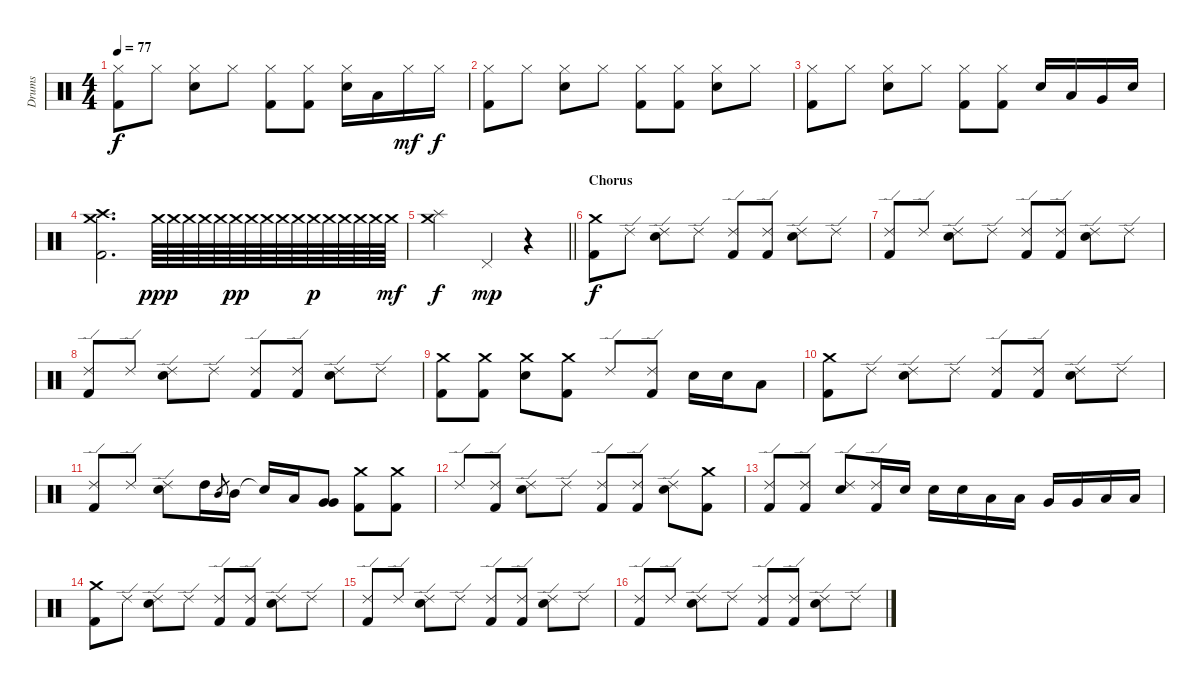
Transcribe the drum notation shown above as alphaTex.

\track ("Drums" "Drums") {instrument percussion}
\staff {score}
\articulation defaults
\ts (4 4)
\tempo 77
\clef neutral
\ks c
("Hi-Hat (closed)" "Kick (hit) 2").8{dy f} "Hi-Hat (closed)".8 ("Hi-Hat (closed)" "Electric Snare (hit)").8 "Hi-Hat (closed)".8 ("Hi-Hat (closed)" "Kick (hit) 2").8 ("Hi-Hat (closed)" "Kick (hit) 2").8 ("Hi-Hat (closed)" "Electric Snare (hit)").16 "Low Tom (hit)".16 "Hi-Hat (closed)".16{dy mf} "Hi-Hat (closed)".16{dy f} |
("Hi-Hat (closed)" "Kick (hit) 2").8 "Hi-Hat (closed)".8 ("Hi-Hat (closed)" "Electric Snare (hit)").8 "Hi-Hat (closed)".8 ("Hi-Hat (closed)" "Kick (hit) 2").8 ("Hi-Hat (closed)" "Kick (hit) 2").8 ("Hi-Hat (closed)" "Electric Snare (hit)").8 "Hi-Hat (closed)".8 |
("Hi-Hat (closed)" "Kick (hit) 2").8 "Hi-Hat (closed)".8 ("Hi-Hat (closed)" "Electric Snare (hit)").8 "Hi-Hat (closed)".8 ("Hi-Hat (closed)" "Kick (hit) 2").8 ("Hi-Hat (closed)" "Kick (hit) 2").8 "Electric Snare (hit)".16 "Low Tom (hit)".16 "Very Low Tom (hit)".16 "Electric Snare (hit)".16 |
("Crash medium (hit)" "Crash high (hit)" "Kick (hit) 2").2{d} "Crash medium (hit)".64{dy ppp} "Crash medium (hit)".64 "Crash medium (hit)".64 "Crash medium (hit)".64 "Crash medium (hit)".64 "Crash medium (hit)".64{dy pp} "Crash medium (hit)".64 "Crash medium (hit)".64 "Crash medium (hit)".64 "Crash medium (hit)".64 "Crash medium (hit)".64{dy p} "Crash medium (hit)".64 "Crash medium (hit)".64 "Crash medium (hit)".64 "Crash medium (hit)".64 "Crash medium (hit)".64{dy mf} |
\barLineRight lightlight
("Splash (hit)" "Crash medium (hit)").2{dy f} "Pedal Hi-Hat (hit)".4{dy mp} r.4 |
\section ("" "Chorus")
("Crash medium (hit)" "Kick (hit) 2").8{dy f} "Ride (edge) 2".8 ("Ride (edge) 2" "Electric Snare (hit)").8 "Ride (edge) 2".8 ("Ride (edge) 2" "Kick (hit) 2").8 ("Ride (edge) 2" "Kick (hit) 2").8 ("Ride (edge) 2" "Electric Snare (hit)").8 "Ride (edge) 2".8 |
("Ride (edge) 2" "Kick (hit) 2").8 "Ride (edge) 2".8 ("Ride (edge) 2" "Electric Snare (hit)").8 "Ride (edge) 2".8 ("Ride (edge) 2" "Kick (hit) 2").8 ("Ride (edge) 2" "Kick (hit) 2").8 ("Ride (edge) 2" "Electric Snare (hit)").8 "Ride (edge) 2".8 |
("Ride (edge) 2" "Kick (hit) 2").8 "Ride (edge) 2".8 ("Ride (edge) 2" "Electric Snare (hit)").8 "Ride (edge) 2".8 ("Ride (edge) 2" "Kick (hit) 2").8 ("Ride (edge) 2" "Kick (hit) 2").8 ("Ride (edge) 2" "Electric Snare (hit)").8 "Ride (edge) 2".8 |
("Crash medium (hit)" "Kick (hit) 2").8 ("Crash medium (hit)" "Kick (hit) 2").8 ("Crash medium (hit)" "Electric Snare (hit)").8 ("Crash medium (hit)" "Kick (hit) 2").8 "Ride (edge) 2".8 ("Ride (edge) 2" "Kick (hit) 2").8 "Electric Snare (hit)".16 "Electric Snare (hit)".16 "Low Tom (hit)".8 |
("Crash medium (hit)" "Kick (hit) 2").8 "Ride (edge) 2".8 ("Ride (edge) 2" "Electric Snare (hit)").8 "Ride (edge) 2".8 ("Ride (edge) 2" "Kick (hit) 2").8 ("Ride (edge) 2" "Kick (hit) 2").8 ("Ride (edge) 2" "Electric Snare (hit)").8 "Ride (edge) 2".8 |
("Ride (edge) 2" "Kick (hit) 2").8 "Ride (edge) 2".8 ("Ride (edge) 2" "Electric Snare (hit)").8 "High Tom (hit)".16 "Mid Tom (hit)".8{gr} "Mid Tom (hit)".16 "Snare (hit)"{t}.16 "Low Tom (hit)".16 ("Very Low Tom (hit)" "Very Low Tom (hit)").8 ("Crash medium (hit)" "Kick (hit) 2").8 ("Crash medium (hit)" "Kick (hit) 2").8 |
"Ride (edge) 2".8 ("Ride (edge) 2" "Kick (hit) 2").8 ("Ride (edge) 2" "Electric Snare (hit)").8 "Ride (edge) 2".8 ("Ride (edge) 2" "Kick (hit) 2").8 ("Ride (edge) 2" "Kick (hit) 2").8 ("Ride (edge) 2" "Electric Snare (hit)").8 ("Crash medium (hit)" "Kick (hit) 2").8 |
("Ride (edge) 2" "Kick (hit) 2").8 ("Ride (edge) 2" "Kick (hit) 2").8 ("Ride (edge) 2" "Electric Snare (hit)").8 ("Ride (edge) 2" "Kick (hit) 2").16 "Electric Snare (hit)".16 "Electric Snare (hit)".16 "Electric Snare (hit)".16 "Low Tom (hit)".16 "Low Tom (hit)".16 "Very Low Tom (hit)".16 "Very Low Tom (hit)".16 "Low Floor Tom (hit)".16 "Low Floor Tom (hit)".16 |
("Crash medium (hit)" "Kick (hit) 2").8 "Ride (edge) 2".8 ("Ride (edge) 2" "Electric Snare (hit)").8 "Ride (edge) 2".8 ("Ride (edge) 2" "Kick (hit) 2").8 ("Ride (edge) 2" "Kick (hit) 2").8 ("Ride (edge) 2" "Electric Snare (hit)").8 "Ride (edge) 2".8 |
("Ride (edge) 2" "Kick (hit) 2").8 "Ride (edge) 2".8 ("Ride (edge) 2" "Electric Snare (hit)").8 "Ride (edge) 2".8 ("Ride (edge) 2" "Kick (hit) 2").8 ("Ride (edge) 2" "Kick (hit) 2").8 ("Ride (edge) 2" "Electric Snare (hit)").8 "Ride (edge) 2".8 |
("Ride (edge) 2" "Kick (hit) 2").8 "Ride (edge) 2".8 ("Ride (edge) 2" "Electric Snare (hit)").8 "Ride (edge) 2".8 ("Ride (edge) 2" "Kick (hit) 2").8 ("Ride (edge) 2" "Kick (hit) 2").8 ("Ride (edge) 2" "Electric Snare (hit)").8 "Ride (edge) 2".8
